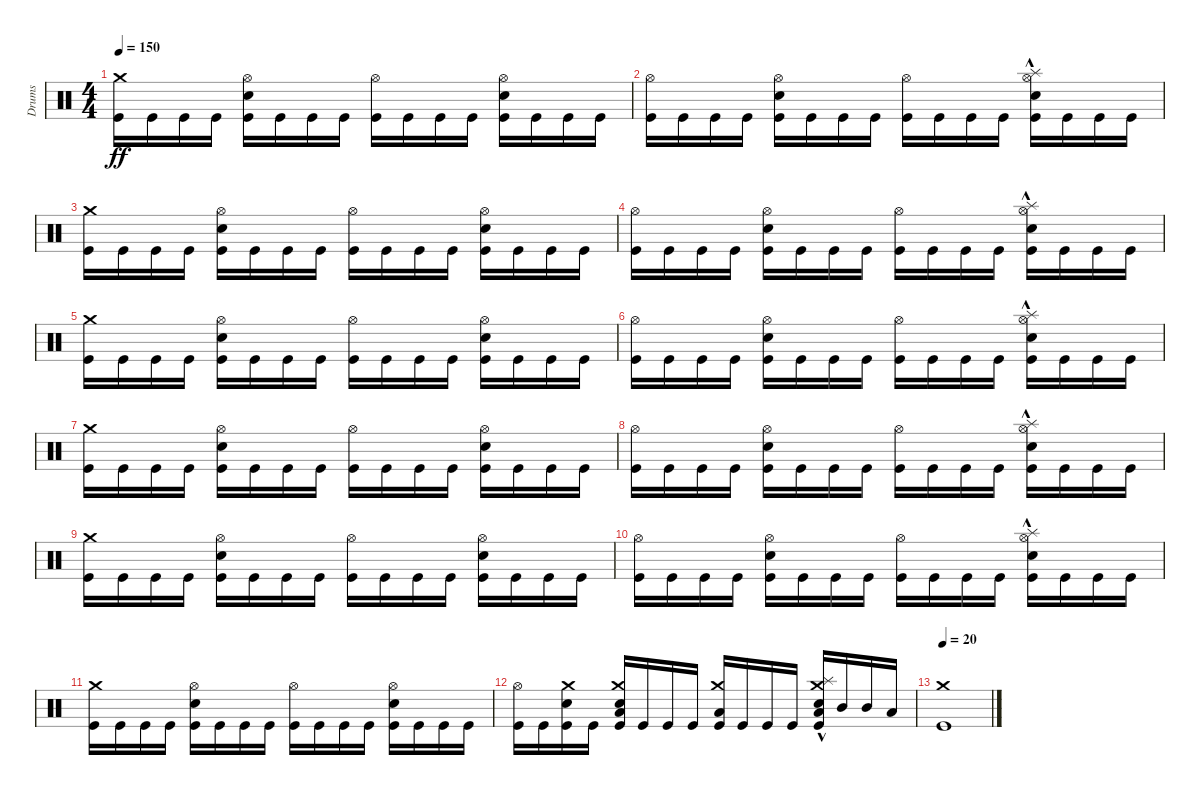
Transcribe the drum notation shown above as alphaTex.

\track ("Drums" "Drums") {instrument percussion}
\staff {score}
\articulation defaults
\ts (4 4)
\tempo 150
\clef neutral
\ks c
("Kick (hit)" "Crash medium (hit)").16{dy ff} "Kick (hit)".16 "Kick (hit)".16 "Kick (hit)".16 ("Kick (hit)" "Electric Snare (hit)" "Hi-Hat (open)").16 "Kick (hit)".16 "Kick (hit)".16 "Kick (hit)".16 ("Kick (hit)" "Hi-Hat (open)").16 "Kick (hit)".16 "Kick (hit)".16 "Kick (hit)".16 ("Kick (hit)" "Electric Snare (hit)" "Hi-Hat (open)").16 "Kick (hit)".16 "Kick (hit)".16 "Kick (hit)".16 |
("Kick (hit)" "Hi-Hat (open)").16 "Kick (hit)".16 "Kick (hit)".16 "Kick (hit)".16 ("Kick (hit)" "Electric Snare (hit)" "Hi-Hat (open)").16 "Kick (hit)".16 "Kick (hit)".16 "Kick (hit)".16 ("Kick (hit)" "Hi-Hat (open)").16 "Kick (hit)".16 "Kick (hit)".16 "Kick (hit)".16 ("Kick (hit)" "Electric Snare (hit)" "Hi-Hat (open)" "Splash (hit)"{hac}).16 "Kick (hit)".16 "Kick (hit)".16 "Kick (hit)".16 |
("Kick (hit)" "Crash medium (hit)").16 "Kick (hit)".16 "Kick (hit)".16 "Kick (hit)".16 ("Kick (hit)" "Electric Snare (hit)" "Hi-Hat (open)").16 "Kick (hit)".16 "Kick (hit)".16 "Kick (hit)".16 ("Kick (hit)" "Hi-Hat (open)").16 "Kick (hit)".16 "Kick (hit)".16 "Kick (hit)".16 ("Kick (hit)" "Electric Snare (hit)" "Hi-Hat (open)").16 "Kick (hit)".16 "Kick (hit)".16 "Kick (hit)".16 |
("Kick (hit)" "Hi-Hat (open)").16 "Kick (hit)".16 "Kick (hit)".16 "Kick (hit)".16 ("Kick (hit)" "Electric Snare (hit)" "Hi-Hat (open)").16 "Kick (hit)".16 "Kick (hit)".16 "Kick (hit)".16 ("Kick (hit)" "Hi-Hat (open)").16 "Kick (hit)".16 "Kick (hit)".16 "Kick (hit)".16 ("Kick (hit)" "Electric Snare (hit)" "Hi-Hat (open)" "Splash (hit)"{hac}).16 "Kick (hit)".16 "Kick (hit)".16 "Kick (hit)".16 |
("Kick (hit)" "Crash medium (hit)").16 "Kick (hit)".16 "Kick (hit)".16 "Kick (hit)".16 ("Kick (hit)" "Electric Snare (hit)" "Hi-Hat (open)").16 "Kick (hit)".16 "Kick (hit)".16 "Kick (hit)".16 ("Kick (hit)" "Hi-Hat (open)").16 "Kick (hit)".16 "Kick (hit)".16 "Kick (hit)".16 ("Kick (hit)" "Electric Snare (hit)" "Hi-Hat (open)").16 "Kick (hit)".16 "Kick (hit)".16 "Kick (hit)".16 |
("Kick (hit)" "Hi-Hat (open)").16 "Kick (hit)".16 "Kick (hit)".16 "Kick (hit)".16 ("Kick (hit)" "Electric Snare (hit)" "Hi-Hat (open)").16 "Kick (hit)".16 "Kick (hit)".16 "Kick (hit)".16 ("Kick (hit)" "Hi-Hat (open)").16 "Kick (hit)".16 "Kick (hit)".16 "Kick (hit)".16 ("Kick (hit)" "Electric Snare (hit)" "Hi-Hat (open)" "Splash (hit)"{hac}).16 "Kick (hit)".16 "Kick (hit)".16 "Kick (hit)".16 |
("Kick (hit)" "Crash medium (hit)").16 "Kick (hit)".16 "Kick (hit)".16 "Kick (hit)".16 ("Kick (hit)" "Electric Snare (hit)" "Hi-Hat (open)").16 "Kick (hit)".16 "Kick (hit)".16 "Kick (hit)".16 ("Kick (hit)" "Hi-Hat (open)").16 "Kick (hit)".16 "Kick (hit)".16 "Kick (hit)".16 ("Kick (hit)" "Electric Snare (hit)" "Hi-Hat (open)").16 "Kick (hit)".16 "Kick (hit)".16 "Kick (hit)".16 |
("Kick (hit)" "Hi-Hat (open)").16 "Kick (hit)".16 "Kick (hit)".16 "Kick (hit)".16 ("Kick (hit)" "Electric Snare (hit)" "Hi-Hat (open)").16 "Kick (hit)".16 "Kick (hit)".16 "Kick (hit)".16 ("Kick (hit)" "Hi-Hat (open)").16 "Kick (hit)".16 "Kick (hit)".16 "Kick (hit)".16 ("Kick (hit)" "Electric Snare (hit)" "Hi-Hat (open)" "Splash (hit)"{hac}).16 "Kick (hit)".16 "Kick (hit)".16 "Kick (hit)".16 |
("Kick (hit)" "Crash medium (hit)").16 "Kick (hit)".16 "Kick (hit)".16 "Kick (hit)".16 ("Kick (hit)" "Electric Snare (hit)" "Hi-Hat (open)").16 "Kick (hit)".16 "Kick (hit)".16 "Kick (hit)".16 ("Kick (hit)" "Hi-Hat (open)").16 "Kick (hit)".16 "Kick (hit)".16 "Kick (hit)".16 ("Kick (hit)" "Electric Snare (hit)" "Hi-Hat (open)").16 "Kick (hit)".16 "Kick (hit)".16 "Kick (hit)".16 |
("Kick (hit)" "Hi-Hat (open)").16 "Kick (hit)".16 "Kick (hit)".16 "Kick (hit)".16 ("Kick (hit)" "Electric Snare (hit)" "Hi-Hat (open)").16 "Kick (hit)".16 "Kick (hit)".16 "Kick (hit)".16 ("Kick (hit)" "Hi-Hat (open)").16 "Kick (hit)".16 "Kick (hit)".16 "Kick (hit)".16 ("Kick (hit)" "Electric Snare (hit)" "Hi-Hat (open)" "Splash (hit)"{hac}).16 "Kick (hit)".16 "Kick (hit)".16 "Kick (hit)".16 |
("Kick (hit)" "Crash medium (hit)").16 "Kick (hit)".16 "Kick (hit)".16 "Kick (hit)".16 ("Kick (hit)" "Electric Snare (hit)" "Hi-Hat (open)").16 "Kick (hit)".16 "Kick (hit)".16 "Kick (hit)".16 ("Kick (hit)" "Hi-Hat (open)").16 "Kick (hit)".16 "Kick (hit)".16 "Kick (hit)".16 ("Kick (hit)" "Electric Snare (hit)" "Hi-Hat (open)").16 "Kick (hit)".16 "Kick (hit)".16 "Kick (hit)".16 |
("Kick (hit)" "Hi-Hat (open)").16 "Kick (hit)".16 ("Kick (hit)" "Electric Snare (hit)" "Crash medium (hit)").16 "Kick (hit)".16 ("Kick (hit)" "Electric Snare (hit)" "Low Tom (hit)" "Crash medium (hit)").16 "Kick (hit)".16 "Kick (hit)".16 "Kick (hit)".16 ("Kick (hit)" "Low Tom (hit)" "Crash medium (hit)").16 "Kick (hit)".16 "Kick (hit)".16 "Kick (hit)".16 ("Kick (hit)" "Electric Snare (hit)" "Low Tom (hit)" "Splash (hit)"{hac} "Crash medium (hit)"{hac}).16 "Mid Tom (hit)".16 "Mid Tom (hit)".16 "Low Tom (hit)".16 |
\tempo 20
("Kick (hit)" "Crash medium (hit)").1{volume 16}
